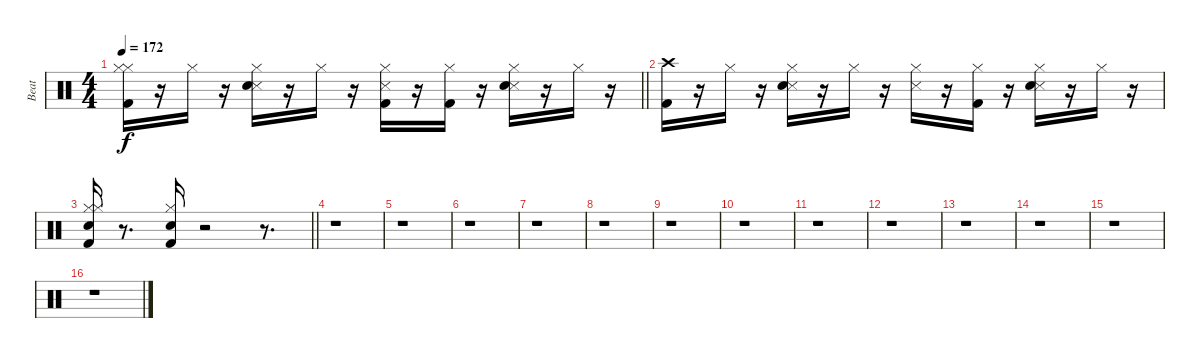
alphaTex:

\track ("Beat" "Beat") {instrument percussion}
\staff {score}
\articulation defaults
\ts (4 4)
\tempo 172
\clef neutral
\barLineRight lightlight
\ks c
("Kick (hit) 2" "Hi-Hat (closed)" "Hi-Hat (closed)").16{dy f} r.16 "Hi-Hat (closed)".16 r.16 ("Snare (side stick) 3" "Snare (hit) 2" "Hi-Hat (closed)").16 r.16 "Hi-Hat (closed)".16 r.16 ("Kick (hit) 2" "Snare (side stick) 3" "Hi-Hat (closed)").16 r.16 ("Kick (hit) 2" "Hi-Hat (closed)").16 r.16 ("Snare (side stick) 3" "Snare (hit) 2" "Hi-Hat (closed)").16 r.16 "Hi-Hat (closed)".16 r.16 |
("Kick (hit) 2" "Crash high (hit)").16 r.16 "Hi-Hat (closed)".16 r.16 ("Snare (side stick) 3" "Snare (hit) 2" "Hi-Hat (closed)").16 r.16 "Hi-Hat (closed)".16 r.16 ("Snare (side stick) 3" "Hi-Hat (closed)").16 r.16 ("Kick (hit) 2" "Hi-Hat (closed)").16 r.16 ("Snare (side stick) 3" "Snare (hit) 2" "Hi-Hat (closed)").16 r.16 "Hi-Hat (closed)".16 r.16 |
\barLineRight lightlight
("Kick (hit) 2" "Snare (hit) 2" "Hi-Hat (closed)" "Hi-Hat (closed)").16 r.8{d} ("Kick (hit) 2" "Snare (hit) 2" "Hi-Hat (closed)").16 r.2 r.8{d} |
\section ("" " ")
r.1 |
r.1 |
r.1 |
r.1 |
r.1 |
r.1 |
r.1 |
r.1 |
r.1 |
r.1 |
r.1 |
r.1 |
r.1
